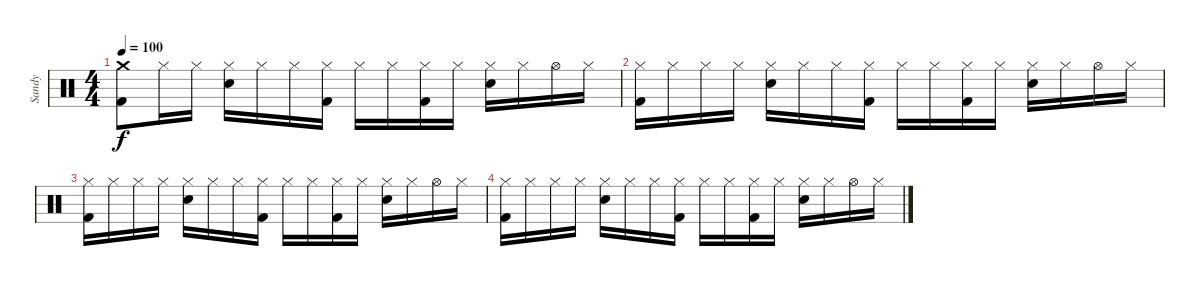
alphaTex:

\track ("Sandy" "Sandy") {instrument percussion}
\staff {score}
\articulation defaults
\ts (4 4)
\tempo 100
\clef neutral
\ks c
("Crash medium (hit)" "Kick (hit) 2").8{dy f volume 0} "Hi-Hat (closed)".16 "Hi-Hat (closed)".16 ("Hi-Hat (closed)" "Snare (hit) 2").16 "Hi-Hat (closed)".16 "Hi-Hat (closed)".16 ("Hi-Hat (closed)" "Kick (hit) 2").16 "Hi-Hat (closed)".16 "Hi-Hat (closed)".16 ("Hi-Hat (closed)" "Kick (hit) 2").16 "Hi-Hat (closed)".16 ("Hi-Hat (closed)" "Snare (hit) 2").16 "Hi-Hat (closed)".16 "Hi-Hat (open)".16 "Hi-Hat (closed)".16 |
("Hi-Hat (closed)" "Kick (hit) 2").16 "Hi-Hat (closed)".16 "Hi-Hat (closed)".16 "Hi-Hat (closed)".16 ("Hi-Hat (closed)" "Snare (hit) 2").16 "Hi-Hat (closed)".16 "Hi-Hat (closed)".16 ("Hi-Hat (closed)" "Kick (hit) 2").16 "Hi-Hat (closed)".16 "Hi-Hat (closed)".16 ("Hi-Hat (closed)" "Kick (hit) 2").16 "Hi-Hat (closed)".16 ("Hi-Hat (closed)" "Snare (hit) 2").16 "Hi-Hat (closed)".16 "Hi-Hat (open)".16 "Hi-Hat (closed)".16 |
("Hi-Hat (closed)" "Kick (hit) 2").16 "Hi-Hat (closed)".16 "Hi-Hat (closed)".16 "Hi-Hat (closed)".16 ("Hi-Hat (closed)" "Snare (hit) 2").16 "Hi-Hat (closed)".16 "Hi-Hat (closed)".16 ("Hi-Hat (closed)" "Kick (hit) 2").16 "Hi-Hat (closed)".16 "Hi-Hat (closed)".16 ("Hi-Hat (closed)" "Kick (hit) 2").16 "Hi-Hat (closed)".16 ("Hi-Hat (closed)" "Snare (hit) 2").16 "Hi-Hat (closed)".16 "Hi-Hat (open)".16 "Hi-Hat (closed)".16 |
("Hi-Hat (closed)" "Kick (hit) 2").16 "Hi-Hat (closed)".16 "Hi-Hat (closed)".16 "Hi-Hat (closed)".16 ("Hi-Hat (closed)" "Snare (hit) 2").16 "Hi-Hat (closed)".16 "Hi-Hat (closed)".16 ("Hi-Hat (closed)" "Kick (hit) 2").16 "Hi-Hat (closed)".16 "Hi-Hat (closed)".16 ("Hi-Hat (closed)" "Kick (hit) 2").16 "Hi-Hat (closed)".16 ("Hi-Hat (closed)" "Snare (hit) 2").16 "Hi-Hat (closed)".16 "Hi-Hat (open)".16 "Hi-Hat (closed)".16
